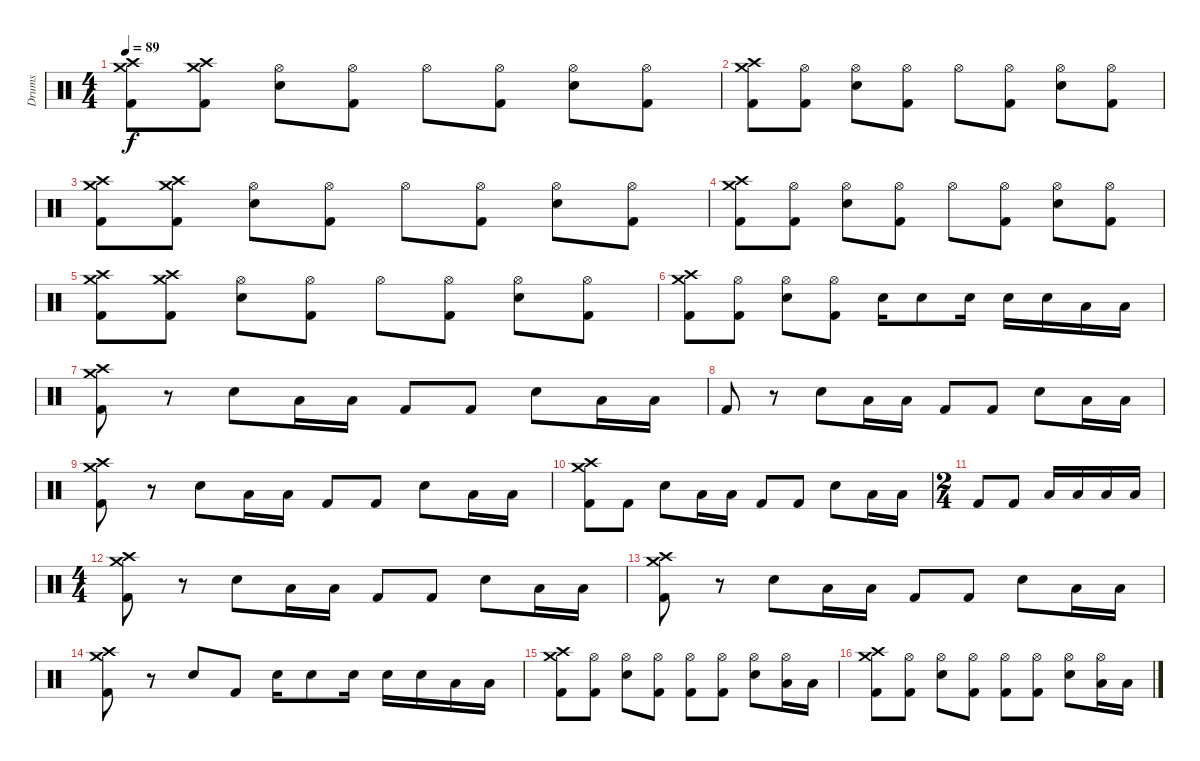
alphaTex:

\track ("Drums" "Drums") {instrument percussion}
\staff {score}
\articulation defaults
\ts (4 4)
\tempo 89
\clef neutral
\ks c
("Crash high (hit)" "Crash medium (hit)" "Kick (hit) 2").8{dy f} ("Crash high (hit)" "Crash medium (hit)" "Kick (hit) 2").8 ("Hi-Hat (open)" "Snare (hit) 2").8 ("Hi-Hat (open)" "Kick (hit) 2").8 "Hi-Hat (open)".8 ("Hi-Hat (open)" "Kick (hit) 2").8 ("Hi-Hat (open)" "Snare (hit) 2").8 ("Hi-Hat (open)" "Kick (hit) 2").8 |
("Crash high (hit)" "Crash medium (hit)" "Kick (hit) 2").8 ("Hi-Hat (open)" "Kick (hit) 2").8 ("Hi-Hat (open)" "Snare (hit) 2").8 ("Hi-Hat (open)" "Kick (hit) 2").8 "Hi-Hat (open)".8 ("Hi-Hat (open)" "Kick (hit) 2").8 ("Hi-Hat (open)" "Snare (hit) 2").8 ("Hi-Hat (open)" "Kick (hit) 2").8 |
("Crash high (hit)" "Crash medium (hit)" "Kick (hit) 2").8 ("Crash high (hit)" "Crash medium (hit)" "Kick (hit) 2").8 ("Hi-Hat (open)" "Snare (hit) 2").8 ("Hi-Hat (open)" "Kick (hit) 2").8 "Hi-Hat (open)".8 ("Hi-Hat (open)" "Kick (hit) 2").8 ("Hi-Hat (open)" "Snare (hit) 2").8 ("Hi-Hat (open)" "Kick (hit) 2").8 |
("Crash high (hit)" "Crash medium (hit)" "Kick (hit) 2").8 ("Hi-Hat (open)" "Kick (hit) 2").8 ("Hi-Hat (open)" "Snare (hit) 2").8 ("Hi-Hat (open)" "Kick (hit) 2").8 "Hi-Hat (open)".8 ("Hi-Hat (open)" "Kick (hit) 2").8 ("Hi-Hat (open)" "Snare (hit) 2").8 ("Hi-Hat (open)" "Kick (hit) 2").8 |
("Crash high (hit)" "Crash medium (hit)" "Kick (hit) 2").8 ("Crash high (hit)" "Crash medium (hit)" "Kick (hit) 2").8 ("Hi-Hat (open)" "Snare (hit) 2").8 ("Hi-Hat (open)" "Kick (hit) 2").8 "Hi-Hat (open)".8 ("Hi-Hat (open)" "Kick (hit) 2").8 ("Hi-Hat (open)" "Snare (hit) 2").8 ("Hi-Hat (open)" "Kick (hit) 2").8 |
("Crash high (hit)" "Crash medium (hit)" "Kick (hit) 2").8 ("Hi-Hat (open)" "Kick (hit) 2").8 ("Hi-Hat (open)" "Snare (hit) 2").8 ("Hi-Hat (open)" "Kick (hit) 2").8 "Snare (hit) 2".16 "Snare (hit) 2".8 "Snare (hit) 2".16 "Snare (hit) 2".16 "Snare (hit) 2".16 "Low Tom (hit)".16 "Low Tom (hit)".16 |
("Crash high (hit)" "Crash medium (hit)" "Kick (hit) 2").8 r.8 "Snare (hit) 2".8 "Low Tom (hit)".16 "Low Tom (hit)".16 "Kick (hit) 2".8 "Kick (hit) 2".8 "Snare (hit) 2".8 "Low Tom (hit)".16 "Low Tom (hit)".16 |
"Kick (hit) 2".8 r.8 "Snare (hit) 2".8 "Low Tom (hit)".16 "Low Tom (hit)".16 "Kick (hit) 2".8 "Kick (hit) 2".8 "Snare (hit) 2".8 "Low Tom (hit)".16 "Low Tom (hit)".16 |
("Crash high (hit)" "Crash medium (hit)" "Kick (hit) 2").8 r.8 "Snare (hit) 2".8 "Low Tom (hit)".16 "Low Tom (hit)".16 "Kick (hit) 2".8 "Kick (hit) 2".8 "Snare (hit) 2".8 "Low Tom (hit)".16 "Low Tom (hit)".16 |
("Crash high (hit)" "Crash medium (hit)" "Kick (hit) 2").8 "Kick (hit) 2".8 "Snare (hit) 2".8 "Low Tom (hit)".16 "Low Tom (hit)".16 "Kick (hit) 2".8 "Kick (hit) 2".8 "Snare (hit) 2".8 "Low Tom (hit)".16 "Low Tom (hit)".16 |
\ts (2 4)
"Kick (hit) 2".8 "Kick (hit) 2".8 "Low Tom (hit)".16 "Low Tom (hit)".16 "Low Floor Tom (hit)".16 "Low Floor Tom (hit)".16 |
\ts (4 4)
("Crash high (hit)" "Crash medium (hit)" "Kick (hit) 2").8 r.8 "Snare (hit) 2".8 "Low Tom (hit)".16 "Low Tom (hit)".16 "Kick (hit) 2".8 "Kick (hit) 2".8 "Snare (hit) 2".8 "Low Tom (hit)".16 "Low Tom (hit)".16 |
("Crash high (hit)" "Crash medium (hit)" "Kick (hit) 2").8 r.8 "Snare (hit) 2".8 "Low Tom (hit)".16 "Low Tom (hit)".16 "Kick (hit) 2".8 "Kick (hit) 2".8 "Snare (hit) 2".8 "Low Tom (hit)".16 "Low Tom (hit)".16 |
("Crash high (hit)" "Crash medium (hit)" "Kick (hit) 2").8 r.8 "Snare (hit) 2".8 "Kick (hit) 2".8 "Snare (hit) 2".16 "Snare (hit) 2".8 "Snare (hit) 2".16 "Snare (hit) 2".16 "Snare (hit) 2".16 "Low Tom (hit)".16 "Low Tom (hit)".16 |
("Crash high (hit)" "Crash medium (hit)" "Kick (hit) 2").8 ("Hi-Hat (open)" "Kick (hit) 2").8 ("Hi-Hat (open)" "Snare (hit) 2").8 ("Hi-Hat (open)" "Kick (hit) 2").8 ("Hi-Hat (open)" "Kick (hit) 2").8 ("Hi-Hat (open)" "Kick (hit) 2").8 ("Hi-Hat (open)" "Snare (hit) 2").8 ("Hi-Hat (open)" "Low Tom (hit)").16 "Low Tom (hit)".16 |
("Crash high (hit)" "Crash medium (hit)" "Kick (hit) 2").8 ("Hi-Hat (open)" "Kick (hit) 2").8 ("Hi-Hat (open)" "Snare (hit) 2").8 ("Hi-Hat (open)" "Kick (hit) 2").8 ("Hi-Hat (open)" "Kick (hit) 2").8 ("Hi-Hat (open)" "Kick (hit) 2").8 ("Hi-Hat (open)" "Snare (hit) 2").8 ("Hi-Hat (open)" "Low Tom (hit)").16 "Low Tom (hit)".16
